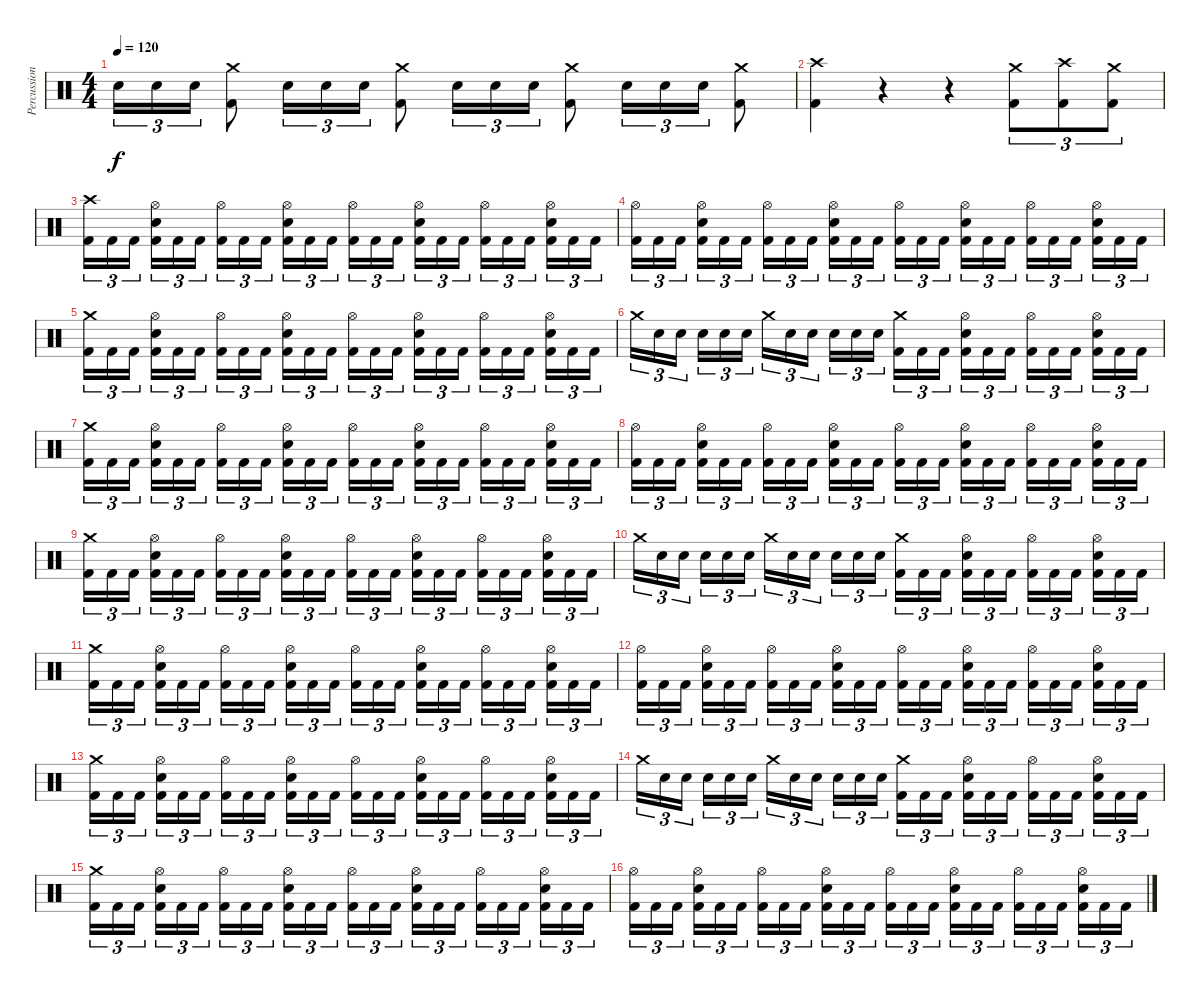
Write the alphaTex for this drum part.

\track ("Percussion" "Percussion") {instrument percussion}
\staff {score}
\articulation defaults
\ts (4 4)
\tempo 120
\clef neutral
\ks c "Snare (hit) 2".16{tu (3 2) dy f} "Snare (hit) 2".16{tu (3 2)} "Snare (hit) 2".16{tu (3 2)}
("Kick (hit) 2" "Crash medium (hit)").8 "Snare (hit) 2".16{tu (3 2)} "Snare (hit) 2".16{tu (3 2)} "Snare (hit) 2".16{tu (3 2)} ("Kick (hit) 2" "Crash medium (hit)").8 "Snare (hit) 2".16{tu (3 2)} "Snare (hit) 2".16{tu (3 2)} "Snare (hit) 2".16{tu (3 2)} ("Kick (hit) 2" "Crash medium (hit)").8 "Snare (hit) 2".16{tu (3 2)} "Snare (hit) 2".16{tu (3 2)} "Snare (hit) 2".16{tu (3 2)} ("Kick (hit) 2" "Crash medium (hit)").8 |
("Kick (hit) 2" "Crash high (hit)").4 r.4 r.4 ("Kick (hit) 2" "Crash medium (hit)").8{tu (3 2)} ("Kick (hit) 2" "Crash high (hit)").8{tu (3 2)} ("Kick (hit) 2" "Crash medium (hit)").8{tu (3 2)} |
("Kick (hit) 2" "Crash high (hit)").16{tu (3 2)} "Kick (hit) 2".16{tu (3 2)} "Kick (hit) 2".16{tu (3 2)} ("Kick (hit) 2" "Snare (hit) 2" "Hi-Hat (open)").16{tu (3 2)} "Kick (hit) 2".16{tu (3 2)} "Kick (hit) 2".16{tu (3 2)} ("Kick (hit) 2" "Hi-Hat (open)").16{tu (3 2)} "Kick (hit) 2".16{tu (3 2)} "Kick (hit) 2".16{tu (3 2)} ("Kick (hit) 2" "Snare (hit) 2" "Hi-Hat (open)").16{tu (3 2)} "Kick (hit) 2".16{tu (3 2)} "Kick (hit) 2".16{tu (3 2)} ("Kick (hit) 2" "Hi-Hat (open)").16{tu (3 2)} "Kick (hit) 2".16{tu (3 2)} "Kick (hit) 2".16{tu (3 2)} ("Kick (hit) 2" "Snare (hit) 2" "Hi-Hat (open)").16{tu (3 2)} "Kick (hit) 2".16{tu (3 2)} "Kick (hit) 2".16{tu (3 2)} ("Kick (hit) 2" "Hi-Hat (open)").16{tu (3 2)} "Kick (hit) 2".16{tu (3 2)} "Kick (hit) 2".16{tu (3 2)} ("Kick (hit) 2" "Snare (hit) 2" "Hi-Hat (open)").16{tu (3 2)} "Kick (hit) 2".16{tu (3 2)} "Kick (hit) 2".16{tu (3 2)} |
("Kick (hit) 2" "Hi-Hat (open)").16{tu (3 2)} "Kick (hit) 2".16{tu (3 2)} "Kick (hit) 2".16{tu (3 2)} ("Kick (hit) 2" "Snare (hit) 2" "Hi-Hat (open)").16{tu (3 2)} "Kick (hit) 2".16{tu (3 2)} "Kick (hit) 2".16{tu (3 2)} ("Kick (hit) 2" "Hi-Hat (open)").16{tu (3 2)} "Kick (hit) 2".16{tu (3 2)} "Kick (hit) 2".16{tu (3 2)} ("Kick (hit) 2" "Snare (hit) 2" "Hi-Hat (open)").16{tu (3 2)} "Kick (hit) 2".16{tu (3 2)} "Kick (hit) 2".16{tu (3 2)} ("Kick (hit) 2" "Hi-Hat (open)").16{tu (3 2)} "Kick (hit) 2".16{tu (3 2)} "Kick (hit) 2".16{tu (3 2)} ("Kick (hit) 2" "Snare (hit) 2" "Hi-Hat (open)").16{tu (3 2)} "Kick (hit) 2".16{tu (3 2)} "Kick (hit) 2".16{tu (3 2)} ("Kick (hit) 2" "Hi-Hat (open)").16{tu (3 2)} "Kick (hit) 2".16{tu (3 2)} "Kick (hit) 2".16{tu (3 2)} ("Kick (hit) 2" "Snare (hit) 2" "Hi-Hat (open)").16{tu (3 2)} "Kick (hit) 2".16{tu (3 2)} "Kick (hit) 2".16{tu (3 2)} |
("Kick (hit) 2" "Crash medium (hit)").16{tu (3 2)} "Kick (hit) 2".16{tu (3 2)} "Kick (hit) 2".16{tu (3 2)} ("Kick (hit) 2" "Snare (hit) 2" "Hi-Hat (open)").16{tu (3 2)} "Kick (hit) 2".16{tu (3 2)} "Kick (hit) 2".16{tu (3 2)} ("Kick (hit) 2" "Hi-Hat (open)").16{tu (3 2)} "Kick (hit) 2".16{tu (3 2)} "Kick (hit) 2".16{tu (3 2)} ("Kick (hit) 2" "Snare (hit) 2" "Hi-Hat (open)").16{tu (3 2)} "Kick (hit) 2".16{tu (3 2)} "Kick (hit) 2".16{tu (3 2)} ("Kick (hit) 2" "Hi-Hat (open)").16{tu (3 2)} "Kick (hit) 2".16{tu (3 2)} "Kick (hit) 2".16{tu (3 2)} ("Kick (hit) 2" "Snare (hit) 2" "Hi-Hat (open)").16{tu (3 2)} "Kick (hit) 2".16{tu (3 2)} "Kick (hit) 2".16{tu (3 2)} ("Kick (hit) 2" "Hi-Hat (open)").16{tu (3 2)} "Kick (hit) 2".16{tu (3 2)} "Kick (hit) 2".16{tu (3 2)} ("Kick (hit) 2" "Snare (hit) 2" "Hi-Hat (open)").16{tu (3 2)} "Kick (hit) 2".16{tu (3 2)} "Kick (hit) 2".16{tu (3 2)} |
"Crash medium (hit)".16{tu (3 2)} "Snare (hit) 2".16{tu (3 2)} "Snare (hit) 2".16{tu (3 2)} "Snare (hit) 2".16{tu (3 2)} "Snare (hit) 2".16{tu (3 2)} "Snare (hit) 2".16{tu (3 2)} "Crash medium (hit)".16{tu (3 2)} "Snare (hit) 2".16{tu (3 2)} "Snare (hit) 2".16{tu (3 2)} "Snare (hit) 2".16{tu (3 2)} "Snare (hit) 2".16{tu (3 2)} "Snare (hit) 2".16{tu (3 2)} ("Kick (hit) 2" "Crash medium (hit)").16{tu (3 2)} "Kick (hit) 2".16{tu (3 2)} "Kick (hit) 2".16{tu (3 2)} ("Kick (hit) 2" "Snare (hit) 2" "Hi-Hat (open)").16{tu (3 2)} "Kick (hit) 2".16{tu (3 2)} "Kick (hit) 2".16{tu (3 2)} ("Kick (hit) 2" "Hi-Hat (open)").16{tu (3 2)} "Kick (hit) 2".16{tu (3 2)} "Kick (hit) 2".16{tu (3 2)} ("Kick (hit) 2" "Snare (hit) 2" "Hi-Hat (open)").16{tu (3 2)} "Kick (hit) 2".16{tu (3 2)} "Kick (hit) 2".16{tu (3 2)} |
("Kick (hit) 2" "Crash medium (hit)").16{tu (3 2)} "Kick (hit) 2".16{tu (3 2)} "Kick (hit) 2".16{tu (3 2)} ("Kick (hit) 2" "Snare (hit) 2" "Hi-Hat (open)").16{tu (3 2)} "Kick (hit) 2".16{tu (3 2)} "Kick (hit) 2".16{tu (3 2)} ("Kick (hit) 2" "Hi-Hat (open)").16{tu (3 2)} "Kick (hit) 2".16{tu (3 2)} "Kick (hit) 2".16{tu (3 2)} ("Kick (hit) 2" "Snare (hit) 2" "Hi-Hat (open)").16{tu (3 2)} "Kick (hit) 2".16{tu (3 2)} "Kick (hit) 2".16{tu (3 2)} ("Kick (hit) 2" "Hi-Hat (open)").16{tu (3 2)} "Kick (hit) 2".16{tu (3 2)} "Kick (hit) 2".16{tu (3 2)} ("Kick (hit) 2" "Snare (hit) 2" "Hi-Hat (open)").16{tu (3 2)} "Kick (hit) 2".16{tu (3 2)} "Kick (hit) 2".16{tu (3 2)} ("Kick (hit) 2" "Hi-Hat (open)").16{tu (3 2)} "Kick (hit) 2".16{tu (3 2)} "Kick (hit) 2".16{tu (3 2)} ("Kick (hit) 2" "Snare (hit) 2" "Hi-Hat (open)").16{tu (3 2)} "Kick (hit) 2".16{tu (3 2)} "Kick (hit) 2".16{tu (3 2)} |
("Kick (hit) 2" "Hi-Hat (open)").16{tu (3 2)} "Kick (hit) 2".16{tu (3 2)} "Kick (hit) 2".16{tu (3 2)} ("Kick (hit) 2" "Snare (hit) 2" "Hi-Hat (open)").16{tu (3 2)} "Kick (hit) 2".16{tu (3 2)} "Kick (hit) 2".16{tu (3 2)} ("Kick (hit) 2" "Hi-Hat (open)").16{tu (3 2)} "Kick (hit) 2".16{tu (3 2)} "Kick (hit) 2".16{tu (3 2)} ("Kick (hit) 2" "Snare (hit) 2" "Hi-Hat (open)").16{tu (3 2)} "Kick (hit) 2".16{tu (3 2)} "Kick (hit) 2".16{tu (3 2)} ("Kick (hit) 2" "Hi-Hat (open)").16{tu (3 2)} "Kick (hit) 2".16{tu (3 2)} "Kick (hit) 2".16{tu (3 2)} ("Kick (hit) 2" "Snare (hit) 2" "Hi-Hat (open)").16{tu (3 2)} "Kick (hit) 2".16{tu (3 2)} "Kick (hit) 2".16{tu (3 2)} ("Kick (hit) 2" "Hi-Hat (open)").16{tu (3 2)} "Kick (hit) 2".16{tu (3 2)} "Kick (hit) 2".16{tu (3 2)} ("Kick (hit) 2" "Snare (hit) 2" "Hi-Hat (open)").16{tu (3 2)} "Kick (hit) 2".16{tu (3 2)} "Kick (hit) 2".16{tu (3 2)} |
("Kick (hit) 2" "Crash medium (hit)").16{tu (3 2)} "Kick (hit) 2".16{tu (3 2)} "Kick (hit) 2".16{tu (3 2)} ("Kick (hit) 2" "Snare (hit) 2" "Hi-Hat (open)").16{tu (3 2)} "Kick (hit) 2".16{tu (3 2)} "Kick (hit) 2".16{tu (3 2)} ("Kick (hit) 2" "Hi-Hat (open)").16{tu (3 2)} "Kick (hit) 2".16{tu (3 2)} "Kick (hit) 2".16{tu (3 2)} ("Kick (hit) 2" "Snare (hit) 2" "Hi-Hat (open)").16{tu (3 2)} "Kick (hit) 2".16{tu (3 2)} "Kick (hit) 2".16{tu (3 2)} ("Kick (hit) 2" "Hi-Hat (open)").16{tu (3 2)} "Kick (hit) 2".16{tu (3 2)} "Kick (hit) 2".16{tu (3 2)} ("Kick (hit) 2" "Snare (hit) 2" "Hi-Hat (open)").16{tu (3 2)} "Kick (hit) 2".16{tu (3 2)} "Kick (hit) 2".16{tu (3 2)} ("Kick (hit) 2" "Hi-Hat (open)").16{tu (3 2)} "Kick (hit) 2".16{tu (3 2)} "Kick (hit) 2".16{tu (3 2)} ("Kick (hit) 2" "Snare (hit) 2" "Hi-Hat (open)").16{tu (3 2)} "Kick (hit) 2".16{tu (3 2)} "Kick (hit) 2".16{tu (3 2)} |
"Crash medium (hit)".16{tu (3 2)} "Snare (hit) 2".16{tu (3 2)} "Snare (hit) 2".16{tu (3 2)} "Snare (hit) 2".16{tu (3 2)} "Snare (hit) 2".16{tu (3 2)} "Snare (hit) 2".16{tu (3 2)} "Crash medium (hit)".16{tu (3 2)} "Snare (hit) 2".16{tu (3 2)} "Snare (hit) 2".16{tu (3 2)} "Snare (hit) 2".16{tu (3 2)} "Snare (hit) 2".16{tu (3 2)} "Snare (hit) 2".16{tu (3 2)} ("Kick (hit) 2" "Crash medium (hit)").16{tu (3 2)} "Kick (hit) 2".16{tu (3 2)} "Kick (hit) 2".16{tu (3 2)} ("Kick (hit) 2" "Snare (hit) 2" "Hi-Hat (open)").16{tu (3 2)} "Kick (hit) 2".16{tu (3 2)} "Kick (hit) 2".16{tu (3 2)} ("Kick (hit) 2" "Hi-Hat (open)").16{tu (3 2)} "Kick (hit) 2".16{tu (3 2)} "Kick (hit) 2".16{tu (3 2)} ("Kick (hit) 2" "Snare (hit) 2" "Hi-Hat (open)").16{tu (3 2)} "Kick (hit) 2".16{tu (3 2)} "Kick (hit) 2".16{tu (3 2)} |
("Kick (hit) 2" "Crash medium (hit)").16{tu (3 2)} "Kick (hit) 2".16{tu (3 2)} "Kick (hit) 2".16{tu (3 2)} ("Kick (hit) 2" "Snare (hit) 2" "Hi-Hat (open)").16{tu (3 2)} "Kick (hit) 2".16{tu (3 2)} "Kick (hit) 2".16{tu (3 2)} ("Kick (hit) 2" "Hi-Hat (open)").16{tu (3 2)} "Kick (hit) 2".16{tu (3 2)} "Kick (hit) 2".16{tu (3 2)} ("Kick (hit) 2" "Snare (hit) 2" "Hi-Hat (open)").16{tu (3 2)} "Kick (hit) 2".16{tu (3 2)} "Kick (hit) 2".16{tu (3 2)} ("Kick (hit) 2" "Hi-Hat (open)").16{tu (3 2)} "Kick (hit) 2".16{tu (3 2)} "Kick (hit) 2".16{tu (3 2)} ("Kick (hit) 2" "Snare (hit) 2" "Hi-Hat (open)").16{tu (3 2)} "Kick (hit) 2".16{tu (3 2)} "Kick (hit) 2".16{tu (3 2)} ("Kick (hit) 2" "Hi-Hat (open)").16{tu (3 2)} "Kick (hit) 2".16{tu (3 2)} "Kick (hit) 2".16{tu (3 2)} ("Kick (hit) 2" "Snare (hit) 2" "Hi-Hat (open)").16{tu (3 2)} "Kick (hit) 2".16{tu (3 2)} "Kick (hit) 2".16{tu (3 2)} |
("Kick (hit) 2" "Hi-Hat (open)").16{tu (3 2)} "Kick (hit) 2".16{tu (3 2)} "Kick (hit) 2".16{tu (3 2)} ("Kick (hit) 2" "Snare (hit) 2" "Hi-Hat (open)").16{tu (3 2)} "Kick (hit) 2".16{tu (3 2)} "Kick (hit) 2".16{tu (3 2)} ("Kick (hit) 2" "Hi-Hat (open)").16{tu (3 2)} "Kick (hit) 2".16{tu (3 2)} "Kick (hit) 2".16{tu (3 2)} ("Kick (hit) 2" "Snare (hit) 2" "Hi-Hat (open)").16{tu (3 2)} "Kick (hit) 2".16{tu (3 2)} "Kick (hit) 2".16{tu (3 2)} ("Kick (hit) 2" "Hi-Hat (open)").16{tu (3 2)} "Kick (hit) 2".16{tu (3 2)} "Kick (hit) 2".16{tu (3 2)} ("Kick (hit) 2" "Snare (hit) 2" "Hi-Hat (open)").16{tu (3 2)} "Kick (hit) 2".16{tu (3 2)} "Kick (hit) 2".16{tu (3 2)} ("Kick (hit) 2" "Hi-Hat (open)").16{tu (3 2)} "Kick (hit) 2".16{tu (3 2)} "Kick (hit) 2".16{tu (3 2)} ("Kick (hit) 2" "Snare (hit) 2" "Hi-Hat (open)").16{tu (3 2)} "Kick (hit) 2".16{tu (3 2)} "Kick (hit) 2".16{tu (3 2)} |
("Kick (hit) 2" "Crash medium (hit)").16{tu (3 2)} "Kick (hit) 2".16{tu (3 2)} "Kick (hit) 2".16{tu (3 2)} ("Kick (hit) 2" "Snare (hit) 2" "Hi-Hat (open)").16{tu (3 2)} "Kick (hit) 2".16{tu (3 2)} "Kick (hit) 2".16{tu (3 2)} ("Kick (hit) 2" "Hi-Hat (open)").16{tu (3 2)} "Kick (hit) 2".16{tu (3 2)} "Kick (hit) 2".16{tu (3 2)} ("Kick (hit) 2" "Snare (hit) 2" "Hi-Hat (open)").16{tu (3 2)} "Kick (hit) 2".16{tu (3 2)} "Kick (hit) 2".16{tu (3 2)} ("Kick (hit) 2" "Hi-Hat (open)").16{tu (3 2)} "Kick (hit) 2".16{tu (3 2)} "Kick (hit) 2".16{tu (3 2)} ("Kick (hit) 2" "Snare (hit) 2" "Hi-Hat (open)").16{tu (3 2)} "Kick (hit) 2".16{tu (3 2)} "Kick (hit) 2".16{tu (3 2)} ("Kick (hit) 2" "Hi-Hat (open)").16{tu (3 2)} "Kick (hit) 2".16{tu (3 2)} "Kick (hit) 2".16{tu (3 2)} ("Kick (hit) 2" "Snare (hit) 2" "Hi-Hat (open)").16{tu (3 2)} "Kick (hit) 2".16{tu (3 2)} "Kick (hit) 2".16{tu (3 2)} |
"Crash medium (hit)".16{tu (3 2)} "Snare (hit) 2".16{tu (3 2)} "Snare (hit) 2".16{tu (3 2)} "Snare (hit) 2".16{tu (3 2)} "Snare (hit) 2".16{tu (3 2)} "Snare (hit) 2".16{tu (3 2)} "Crash medium (hit)".16{tu (3 2)} "Snare (hit) 2".16{tu (3 2)} "Snare (hit) 2".16{tu (3 2)} "Snare (hit) 2".16{tu (3 2)} "Snare (hit) 2".16{tu (3 2)} "Snare (hit) 2".16{tu (3 2)} ("Kick (hit) 2" "Crash medium (hit)").16{tu (3 2)} "Kick (hit) 2".16{tu (3 2)} "Kick (hit) 2".16{tu (3 2)} ("Kick (hit) 2" "Snare (hit) 2" "Hi-Hat (open)").16{tu (3 2)} "Kick (hit) 2".16{tu (3 2)} "Kick (hit) 2".16{tu (3 2)} ("Kick (hit) 2" "Hi-Hat (open)").16{tu (3 2)} "Kick (hit) 2".16{tu (3 2)} "Kick (hit) 2".16{tu (3 2)} ("Kick (hit) 2" "Snare (hit) 2" "Hi-Hat (open)").16{tu (3 2)} "Kick (hit) 2".16{tu (3 2)} "Kick (hit) 2".16{tu (3 2)} |
("Kick (hit) 2" "Crash medium (hit)").16{tu (3 2)} "Kick (hit) 2".16{tu (3 2)} "Kick (hit) 2".16{tu (3 2)} ("Kick (hit) 2" "Snare (hit) 2" "Hi-Hat (open)").16{tu (3 2)} "Kick (hit) 2".16{tu (3 2)} "Kick (hit) 2".16{tu (3 2)} ("Kick (hit) 2" "Hi-Hat (open)").16{tu (3 2)} "Kick (hit) 2".16{tu (3 2)} "Kick (hit) 2".16{tu (3 2)} ("Kick (hit) 2" "Snare (hit) 2" "Hi-Hat (open)").16{tu (3 2)} "Kick (hit) 2".16{tu (3 2)} "Kick (hit) 2".16{tu (3 2)} ("Kick (hit) 2" "Hi-Hat (open)").16{tu (3 2)} "Kick (hit) 2".16{tu (3 2)} "Kick (hit) 2".16{tu (3 2)} ("Kick (hit) 2" "Snare (hit) 2" "Hi-Hat (open)").16{tu (3 2)} "Kick (hit) 2".16{tu (3 2)} "Kick (hit) 2".16{tu (3 2)} ("Kick (hit) 2" "Hi-Hat (open)").16{tu (3 2)} "Kick (hit) 2".16{tu (3 2)} "Kick (hit) 2".16{tu (3 2)} ("Kick (hit) 2" "Snare (hit) 2" "Hi-Hat (open)").16{tu (3 2)} "Kick (hit) 2".16{tu (3 2)} "Kick (hit) 2".16{tu (3 2)} |
("Kick (hit) 2" "Hi-Hat (open)").16{tu (3 2)} "Kick (hit) 2".16{tu (3 2)} "Kick (hit) 2".16{tu (3 2)} ("Kick (hit) 2" "Snare (hit) 2" "Hi-Hat (open)").16{tu (3 2)} "Kick (hit) 2".16{tu (3 2)} "Kick (hit) 2".16{tu (3 2)} ("Kick (hit) 2" "Hi-Hat (open)").16{tu (3 2)} "Kick (hit) 2".16{tu (3 2)} "Kick (hit) 2".16{tu (3 2)} ("Kick (hit) 2" "Snare (hit) 2" "Hi-Hat (open)").16{tu (3 2)} "Kick (hit) 2".16{tu (3 2)} "Kick (hit) 2".16{tu (3 2)} ("Kick (hit) 2" "Hi-Hat (open)").16{tu (3 2)} "Kick (hit) 2".16{tu (3 2)} "Kick (hit) 2".16{tu (3 2)} ("Kick (hit) 2" "Snare (hit) 2" "Hi-Hat (open)").16{tu (3 2)} "Kick (hit) 2".16{tu (3 2)} "Kick (hit) 2".16{tu (3 2)} ("Kick (hit) 2" "Hi-Hat (open)").16{tu (3 2)} "Kick (hit) 2".16{tu (3 2)} "Kick (hit) 2".16{tu (3 2)} ("Kick (hit) 2" "Snare (hit) 2" "Hi-Hat (open)").16{tu (3 2)} "Kick (hit) 2".16{tu (3 2)} "Kick (hit) 2".16{tu (3 2)}
